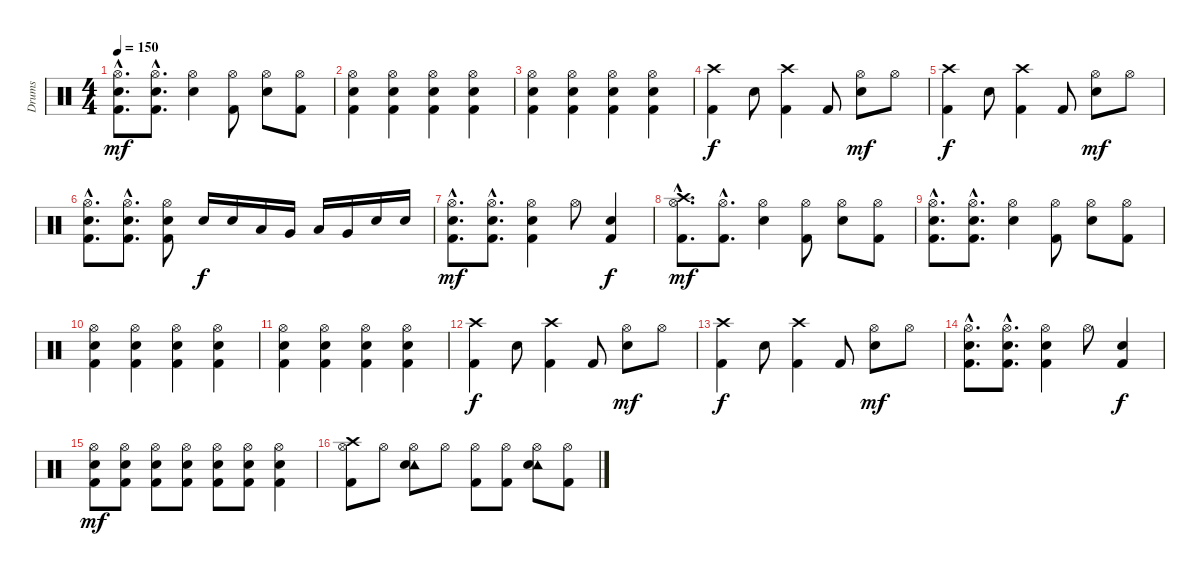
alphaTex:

\track ("Drums" "Drums") {instrument percussion}
\staff {score}
\articulation defaults
\ts (4 4)
\tempo 150
\clef neutral
\ks c
("Hi-Hat (open)"{hac} "Snare (hit) 2"{hac} "Kick (hit) 2"{hac}).8{d dy mf} ("Hi-Hat (open)"{hac} "Snare (hit) 2"{hac} "Kick (hit) 2"{hac}).8{d} ("Hi-Hat (open)" "Snare (hit) 2").4 ("Hi-Hat (open)" "Kick (hit) 2").8 ("Hi-Hat (open)" "Snare (hit) 2").8 ("Hi-Hat (open)" "Kick (hit) 2").8 |
("Hi-Hat (open)" "Snare (hit) 2" "Kick (hit) 2").4 ("Hi-Hat (open)" "Snare (hit) 2" "Kick (hit) 2").4 ("Hi-Hat (open)" "Snare (hit) 2" "Kick (hit) 2").4 ("Hi-Hat (open)" "Snare (hit) 2" "Kick (hit) 2").4 |
("Hi-Hat (open)" "Snare (hit) 2" "Kick (hit) 2").4 ("Hi-Hat (open)" "Snare (hit) 2" "Kick (hit) 2").4 ("Hi-Hat (open)" "Snare (hit) 2" "Kick (hit) 2").4 ("Hi-Hat (open)" "Snare (hit) 2" "Kick (hit) 2").4 |
("Crash high (hit)" "Kick (hit) 2").4{dy f} "Snare (hit) 2".8 ("Crash high (hit)" "Kick (hit) 2").4 "Kick (hit) 2".8 ("Hi-Hat (open)" "Snare (hit) 2").8{dy mf} "Hi-Hat (open)".8 |
("Crash high (hit)" "Kick (hit) 2").4{dy f} "Snare (hit) 2".8 ("Crash high (hit)" "Kick (hit) 2").4 "Kick (hit) 2".8 ("Hi-Hat (open)" "Snare (hit) 2").8{dy mf} "Hi-Hat (open)".8 |
("Hi-Hat (open)"{hac} "Snare (hit) 2"{hac} "Kick (hit) 2"{hac}).8{d} ("Hi-Hat (open)"{hac} "Snare (hit) 2"{hac} "Kick (hit) 2"{hac}).8{d} ("Hi-Hat (open)" "Snare (hit) 2" "Kick (hit) 2").8 "Snare (hit) 2".16{dy f} "Snare (hit) 2".16 "Low Tom (hit)".16 "Very Low Tom (hit)".16 "Low Floor Tom (hit)".16 "Very Low Tom (hit)".16 "Snare (hit) 2".16 "Snare (hit) 2".16 |
("Hi-Hat (open)"{hac} "Snare (hit) 2"{hac} "Kick (hit) 2"{hac}).8{d dy mf} ("Hi-Hat (open)"{hac} "Snare (hit) 2"{hac} "Kick (hit) 2"{hac}).8{d} ("Hi-Hat (open)" "Snare (hit) 2" "Kick (hit) 2").4 "Hi-Hat (open)".8 ("Kick (hit) 2" "Snare (hit) 2").4{dy f} |
("Crash high (hit)"{hac} "Hi-Hat (open)"{hac} "Kick (hit) 2"{hac}).8{d dy mf} ("Hi-Hat (open)"{hac} "Kick (hit) 2"{hac}).8{d} ("Hi-Hat (open)" "Snare (hit) 2").4 ("Hi-Hat (open)" "Kick (hit) 2").8 ("Hi-Hat (open)" "Snare (hit) 2").8 ("Hi-Hat (open)" "Kick (hit) 2").8 |
("Hi-Hat (open)"{hac} "Snare (hit) 2"{hac} "Kick (hit) 2"{hac}).8{d} ("Hi-Hat (open)"{hac} "Snare (hit) 2"{hac} "Kick (hit) 2"{hac}).8{d} ("Hi-Hat (open)" "Snare (hit) 2").4 ("Hi-Hat (open)" "Kick (hit) 2").8 ("Hi-Hat (open)" "Snare (hit) 2").8 ("Hi-Hat (open)" "Kick (hit) 2").8 |
("Hi-Hat (open)" "Snare (hit) 2" "Kick (hit) 2").4 ("Hi-Hat (open)" "Snare (hit) 2" "Kick (hit) 2").4 ("Hi-Hat (open)" "Snare (hit) 2" "Kick (hit) 2").4 ("Hi-Hat (open)" "Snare (hit) 2" "Kick (hit) 2").4 |
("Hi-Hat (open)" "Snare (hit) 2" "Kick (hit) 2").4 ("Hi-Hat (open)" "Snare (hit) 2" "Kick (hit) 2").4 ("Hi-Hat (open)" "Snare (hit) 2" "Kick (hit) 2").4 ("Hi-Hat (open)" "Snare (hit) 2" "Kick (hit) 2").4 |
("Crash high (hit)" "Kick (hit) 2").4{dy f} "Snare (hit) 2".8 ("Crash high (hit)" "Kick (hit) 2").4 "Kick (hit) 2".8 ("Hi-Hat (open)" "Snare (hit) 2").8{dy mf} "Hi-Hat (open)".8 |
("Crash high (hit)" "Kick (hit) 2").4{dy f} "Snare (hit) 2".8 ("Crash high (hit)" "Kick (hit) 2").4 "Kick (hit) 2".8 ("Hi-Hat (open)" "Snare (hit) 2").8{dy mf} "Hi-Hat (open)".8 |
("Hi-Hat (open)"{hac} "Snare (hit) 2"{hac} "Kick (hit) 2"{hac}).8{d} ("Hi-Hat (open)"{hac} "Snare (hit) 2"{hac} "Kick (hit) 2"{hac}).8{d} ("Hi-Hat (open)" "Snare (hit) 2" "Kick (hit) 2").4 "Hi-Hat (open)".8 ("Kick (hit) 2" "Snare (hit) 2").4{dy f} |
("Hi-Hat (open)" "Snare (hit) 2" "Kick (hit) 2").8{dy mf} ("Hi-Hat (open)" "Snare (hit) 2" "Kick (hit) 2").8 ("Hi-Hat (open)" "Snare (hit) 2" "Kick (hit) 2").8 ("Hi-Hat (open)" "Snare (hit) 2" "Kick (hit) 2").8 ("Hi-Hat (open)" "Snare (hit) 2" "Kick (hit) 2").8 ("Hi-Hat (open)" "Snare (hit) 2" "Kick (hit) 2").8 ("Hi-Hat (open)" "Snare (hit) 2" "Kick (hit) 2").4 |
("Crash high (hit)" "Hi-Hat (open)" "Kick (hit) 2").8 "Hi-Hat (open)".8 ("Tambourine (hit)" "Hi-Hat (open)" "Snare (hit) 2").8 "Hi-Hat (open)".8 ("Hi-Hat (open)" "Kick (hit) 2").8 ("Hi-Hat (open)" "Kick (hit) 2").8 ("Tambourine (hit)" "Hi-Hat (open)" "Snare (hit) 2").8 ("Hi-Hat (open)" "Kick (hit) 2").8
